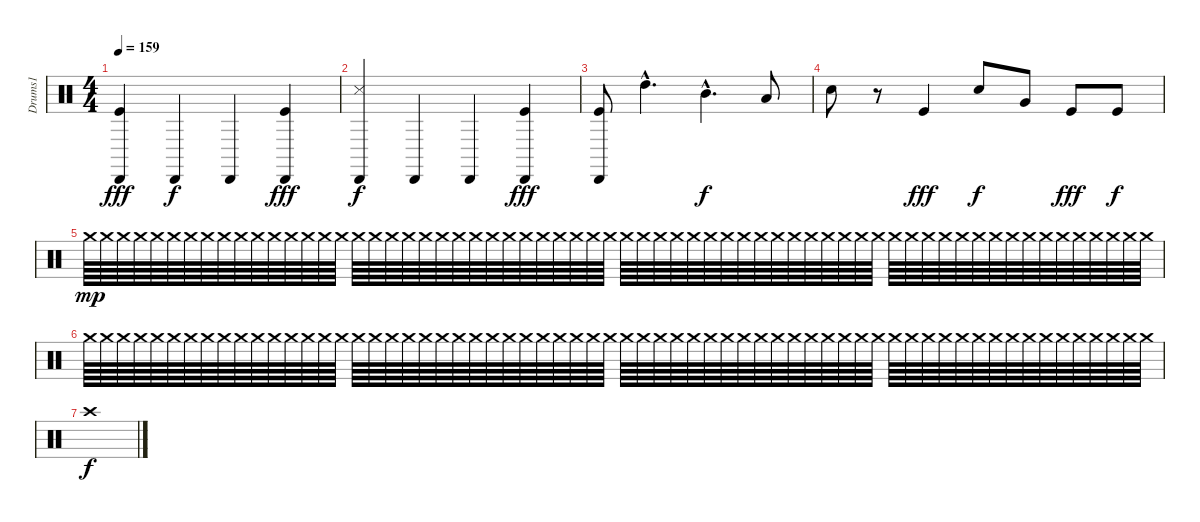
\track ("Drums1" "Drums1") {instrument percussion}
\staff {score}
\articulation defaults
\ts (4 4)
\tempo 159
\clef neutral
\ks c
("Cabasa (hit)" "Kick (hit)").4{dy fff} "Cabasa (hit)".4{dy f} "Cabasa (hit)".4 ("Cabasa (hit)" "Kick (hit)").4{dy fff} |
("Cabasa (hit)" "Snare (side stick) 3").4{dy f} "Cabasa (hit)".4 "Cabasa (hit)".4 ("Cabasa (hit)" "Kick (hit)").4{dy fff} |
("Cabasa (hit)" "Kick (hit)").8 "High Tom (hit)"{hac}.4{d} "Mid Tom (hit)"{hac}.4{d dy f} "Low Tom (hit)".8 |
"Electric Snare (hit)".8 r.8 "Kick (hit)".4{dy fff} "Snare (hit) 2".8{dy f} "Very Low Tom (hit)".8 "Kick (hit)".8{dy fff} "Kick (hit)".8{dy f} |
"Crash medium (hit)".64{dy mp} "Crash medium (hit)".64 "Crash medium (hit)".64 "Crash medium (hit)".64 "Crash medium (hit)".64 "Crash medium (hit)".64 "Crash medium (hit)".64 "Crash medium (hit)".64 "Crash medium (hit)".64 "Crash medium (hit)".64 "Crash medium (hit)".64 "Crash medium (hit)".64 "Crash medium (hit)".64 "Crash medium (hit)".64 "Crash medium (hit)".64 "Crash medium (hit)".64 "Crash medium (hit)".64 "Crash medium (hit)".64 "Crash medium (hit)".64 "Crash medium (hit)".64 "Crash medium (hit)".64 "Crash medium (hit)".64 "Crash medium (hit)".64 "Crash medium (hit)".64 "Crash medium (hit)".64 "Crash medium (hit)".64 "Crash medium (hit)".64 "Crash medium (hit)".64 "Crash medium (hit)".64 "Crash medium (hit)".64 "Crash medium (hit)".64 "Crash medium (hit)".64 "Crash medium (hit)".64 "Crash medium (hit)".64 "Crash medium (hit)".64 "Crash medium (hit)".64 "Crash medium (hit)".64 "Crash medium (hit)".64 "Crash medium (hit)".64 "Crash medium (hit)".64 "Crash medium (hit)".64 "Crash medium (hit)".64 "Crash medium (hit)".64 "Crash medium (hit)".64 "Crash medium (hit)".64 "Crash medium (hit)".64 "Crash medium (hit)".64 "Crash medium (hit)".64 "Crash medium (hit)".64 "Crash medium (hit)".64 "Crash medium (hit)".64 "Crash medium (hit)".64 "Crash medium (hit)".64 "Crash medium (hit)".64 "Crash medium (hit)".64 "Crash medium (hit)".64 "Crash medium (hit)".64 "Crash medium (hit)".64 "Crash medium (hit)".64 "Crash medium (hit)".64 "Crash medium (hit)".64 "Crash medium (hit)".64 "Crash medium (hit)".64 "Crash medium (hit)".64 |
"Crash medium (hit)".64 "Crash medium (hit)".64 "Crash medium (hit)".64 "Crash medium (hit)".64 "Crash medium (hit)".64 "Crash medium (hit)".64 "Crash medium (hit)".64 "Crash medium (hit)".64 "Crash medium (hit)".64 "Crash medium (hit)".64 "Crash medium (hit)".64 "Crash medium (hit)".64 "Crash medium (hit)".64 "Crash medium (hit)".64 "Crash medium (hit)".64 "Crash medium (hit)".64 "Crash medium (hit)".64 "Crash medium (hit)".64 "Crash medium (hit)".64 "Crash medium (hit)".64 "Crash medium (hit)".64 "Crash medium (hit)".64 "Crash medium (hit)".64 "Crash medium (hit)".64 "Crash medium (hit)".64 "Crash medium (hit)".64 "Crash medium (hit)".64 "Crash medium (hit)".64 "Crash medium (hit)".64 "Crash medium (hit)".64 "Crash medium (hit)".64 "Crash medium (hit)".64 "Crash medium (hit)".64 "Crash medium (hit)".64 "Crash medium (hit)".64 "Crash medium (hit)".64 "Crash medium (hit)".64 "Crash medium (hit)".64 "Crash medium (hit)".64 "Crash medium (hit)".64 "Crash medium (hit)".64 "Crash medium (hit)".64 "Crash medium (hit)".64 "Crash medium (hit)".64 "Crash medium (hit)".64 "Crash medium (hit)".64 "Crash medium (hit)".64 "Crash medium (hit)".64 "Crash medium (hit)".64 "Crash medium (hit)".64 "Crash medium (hit)".64 "Crash medium (hit)".64 "Crash medium (hit)".64 "Crash medium (hit)".64 "Crash medium (hit)".64 "Crash medium (hit)".64 "Crash medium (hit)".64 "Crash medium (hit)".64 "Crash medium (hit)".64 "Crash medium (hit)".64 "Crash medium (hit)".64 "Crash medium (hit)".64 "Crash medium (hit)".64 "Crash medium (hit)".64 |
"Crash high (hit)".1{dy f}
